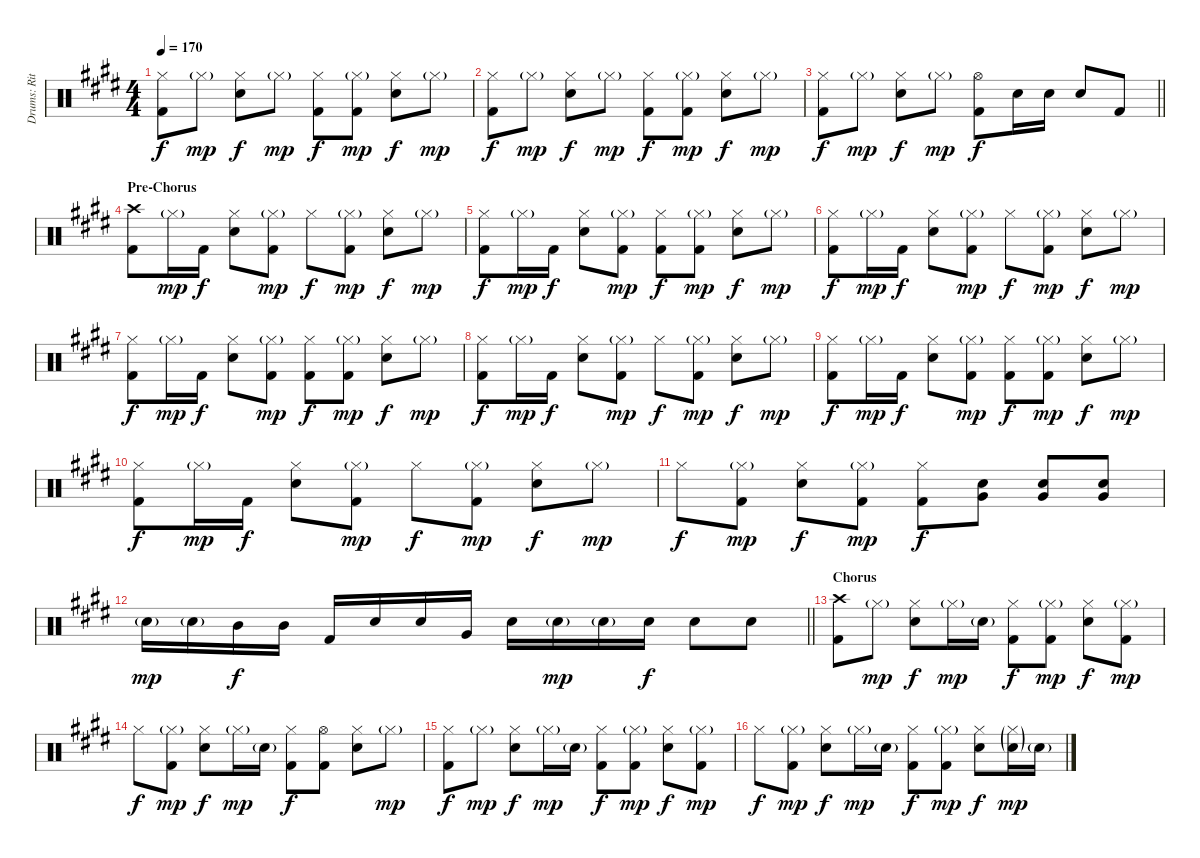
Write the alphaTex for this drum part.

\track ("Drums: Ritsu Tainaka" "Drums: Rit") {instrument percussion}
\staff {score}
\articulation defaults
\ts (4 4)
\tempo 170
\clef neutral
\ks e
("Hi-Hat (closed)" "Kick (hit) 2").8{dy f} "Hi-Hat (closed)"{g}.8{dy mp} ("Hi-Hat (closed)" "Electric Snare (hit)").8{dy f} "Hi-Hat (closed)"{g}.8{dy mp} ("Hi-Hat (closed)" "Kick (hit) 2").8{dy f} ("Hi-Hat (closed)"{g} "Kick (hit) 2").8{dy mp} ("Hi-Hat (closed)" "Electric Snare (hit)").8{dy f} "Hi-Hat (closed)"{g}.8{dy mp} |
("Hi-Hat (closed)" "Kick (hit) 2").8{dy f} "Hi-Hat (closed)"{g}.8{dy mp} ("Hi-Hat (closed)" "Electric Snare (hit)").8{dy f} "Hi-Hat (closed)"{g}.8{dy mp} ("Hi-Hat (closed)" "Kick (hit) 2").8{dy f} ("Hi-Hat (closed)"{g} "Kick (hit) 2").8{dy mp} ("Hi-Hat (closed)" "Electric Snare (hit)").8{dy f} "Hi-Hat (closed)"{g}.8{dy mp} |
\barLineRight lightlight
("Hi-Hat (closed)" "Kick (hit) 2").8{dy f} "Hi-Hat (closed)"{g}.8{dy mp} ("Hi-Hat (closed)" "Electric Snare (hit)").8{dy f} "Hi-Hat (closed)"{g}.8{dy mp} ("Hi-Hat (open)" "Kick (hit) 2").8{dy f} "Electric Snare (hit)".16 "Electric Snare (hit)".16 "Electric Snare (hit)".8 "Kick (hit) 2".8 |
\section ("" "Pre-Chorus")
("Crash high (hit)" "Kick (hit) 2").8 "Hi-Hat (closed)"{g}.16{dy mp} "Kick (hit) 2".16{dy f} ("Hi-Hat (closed)" "Electric Snare (hit)").8 ("Hi-Hat (closed)"{g} "Kick (hit) 2").8{dy mp} "Hi-Hat (closed)".8{dy f} ("Hi-Hat (closed)"{g} "Kick (hit) 2").8{dy mp} ("Hi-Hat (closed)" "Electric Snare (hit)").8{dy f} "Hi-Hat (closed)"{g}.8{dy mp} |
("Hi-Hat (closed)" "Kick (hit) 2").8{dy f} "Hi-Hat (closed)"{g}.16{dy mp} "Kick (hit) 2".16{dy f} ("Hi-Hat (closed)" "Electric Snare (hit)").8 ("Hi-Hat (closed)"{g} "Kick (hit) 2").8{dy mp} ("Hi-Hat (closed)" "Kick (hit) 2").8{dy f} ("Hi-Hat (closed)"{g} "Kick (hit) 2").8{dy mp} ("Hi-Hat (closed)" "Electric Snare (hit)").8{dy f} "Hi-Hat (closed)"{g}.8{dy mp} |
("Hi-Hat (closed)" "Kick (hit) 2").8{dy f} "Hi-Hat (closed)"{g}.16{dy mp} "Kick (hit) 2".16{dy f} ("Hi-Hat (closed)" "Electric Snare (hit)").8 ("Hi-Hat (closed)"{g} "Kick (hit) 2").8{dy mp} "Hi-Hat (closed)".8{dy f} ("Hi-Hat (closed)"{g} "Kick (hit) 2").8{dy mp} ("Hi-Hat (closed)" "Electric Snare (hit)").8{dy f} "Hi-Hat (closed)"{g}.8{dy mp} |
("Hi-Hat (closed)" "Kick (hit) 2").8{dy f} "Hi-Hat (closed)"{g}.16{dy mp} "Kick (hit) 2".16{dy f} ("Hi-Hat (closed)" "Electric Snare (hit)").8 ("Hi-Hat (closed)"{g} "Kick (hit) 2").8{dy mp} ("Hi-Hat (closed)" "Kick (hit) 2").8{dy f} ("Hi-Hat (closed)"{g} "Kick (hit) 2").8{dy mp} ("Hi-Hat (closed)" "Electric Snare (hit)").8{dy f} "Hi-Hat (closed)"{g}.8{dy mp} |
("Hi-Hat (closed)" "Kick (hit) 2").8{dy f} "Hi-Hat (closed)"{g}.16{dy mp} "Kick (hit) 2".16{dy f} ("Hi-Hat (closed)" "Electric Snare (hit)").8 ("Hi-Hat (closed)"{g} "Kick (hit) 2").8{dy mp} "Hi-Hat (closed)".8{dy f} ("Hi-Hat (closed)"{g} "Kick (hit) 2").8{dy mp} ("Hi-Hat (closed)" "Electric Snare (hit)").8{dy f} "Hi-Hat (closed)"{g}.8{dy mp} |
("Hi-Hat (closed)" "Kick (hit) 2").8{dy f} "Hi-Hat (closed)"{g}.16{dy mp} "Kick (hit) 2".16{dy f} ("Hi-Hat (closed)" "Electric Snare (hit)").8 ("Hi-Hat (closed)"{g} "Kick (hit) 2").8{dy mp} ("Hi-Hat (closed)" "Kick (hit) 2").8{dy f} ("Hi-Hat (closed)"{g} "Kick (hit) 2").8{dy mp} ("Hi-Hat (closed)" "Electric Snare (hit)").8{dy f} "Hi-Hat (closed)"{g}.8{dy mp} |
("Hi-Hat (closed)" "Kick (hit) 2").8{dy f} "Hi-Hat (closed)"{g}.16{dy mp} "Kick (hit) 2".16{dy f} ("Hi-Hat (closed)" "Electric Snare (hit)").8 ("Hi-Hat (closed)"{g} "Kick (hit) 2").8{dy mp} "Hi-Hat (closed)".8{dy f} ("Hi-Hat (closed)"{g} "Kick (hit) 2").8{dy mp} ("Hi-Hat (closed)" "Electric Snare (hit)").8{dy f} "Hi-Hat (closed)"{g}.8{dy mp} |
"Hi-Hat (closed)".8{dy f} ("Hi-Hat (closed)"{g} "Kick (hit) 2").8{dy mp} ("Hi-Hat (closed)" "Electric Snare (hit)").8{dy f} ("Hi-Hat (closed)"{g} "Kick (hit) 2").8{dy mp} ("Hi-Hat (closed)" "Kick (hit) 2").8{dy f} ("Electric Snare (hit)" "Very Low Tom (hit)").8 ("Electric Snare (hit)" "Very Low Tom (hit)").8 ("Electric Snare (hit)" "Very Low Tom (hit)").8 |
\barLineRight lightlight "Electric Snare (hit)"{g}.16{dy mp} "Electric Snare (hit)"{g}.16 "Mid Tom (hit)".16{dy f} "Mid Tom (hit)".16 "Kick (hit) 2".16 "Electric Snare (hit)".16 "Electric Snare (hit)".16 "Very Low Tom (hit)".16 "Electric Snare (hit)".16 "Electric Snare (hit)"{g}.16{dy mp} "Electric Snare (hit)"{g}.16 "Electric Snare (hit)".16{dy f} "Electric Snare (hit)".8 "Electric Snare (hit)".8
|
\section ("" "Chorus")
("Crash high (hit)" "Kick (hit) 2").8 "Hi-Hat (closed)"{g}.8{dy mp} ("Hi-Hat (closed)" "Electric Snare (hit)").8{dy f} "Hi-Hat (closed)"{g}.16{dy mp} "Electric Snare (hit)"{g}.16 ("Hi-Hat (closed)" "Kick (hit) 2").8{dy f} ("Hi-Hat (closed)"{g} "Kick (hit) 2").8{dy mp} ("Hi-Hat (closed)" "Electric Snare (hit)").8{dy f} ("Hi-Hat (closed)"{g} "Kick (hit) 2").8{dy mp} |
"Hi-Hat (closed)".8{dy f} ("Hi-Hat (closed)"{g} "Kick (hit) 2").8{dy mp} ("Hi-Hat (closed)" "Electric Snare (hit)").8{dy f} "Hi-Hat (closed)"{g}.16{dy mp} "Electric Snare (hit)"{g}.16 ("Hi-Hat (closed)" "Kick (hit) 2").8{dy f} ("Hi-Hat (open)" "Kick (hit) 2").8 ("Hi-Hat (closed)" "Electric Snare (hit)").8 "Hi-Hat (closed)"{g}.8{dy mp} |
("Hi-Hat (closed)" "Kick (hit) 2").8{dy f} "Hi-Hat (closed)"{g}.8{dy mp} ("Hi-Hat (closed)" "Electric Snare (hit)").8{dy f} "Hi-Hat (closed)"{g}.16{dy mp} "Electric Snare (hit)"{g}.16 ("Hi-Hat (closed)" "Kick (hit) 2").8{dy f} ("Hi-Hat (closed)"{g} "Kick (hit) 2").8{dy mp} ("Hi-Hat (closed)" "Electric Snare (hit)").8{dy f} ("Hi-Hat (closed)"{g} "Kick (hit) 2").8{dy mp} |
"Hi-Hat (closed)".8{dy f} ("Hi-Hat (closed)"{g} "Kick (hit) 2").8{dy mp} ("Hi-Hat (closed)" "Electric Snare (hit)").8{dy f} "Hi-Hat (closed)"{g}.16{dy mp} "Electric Snare (hit)"{g}.16 ("Hi-Hat (closed)" "Kick (hit) 2").8{dy f} ("Hi-Hat (closed)"{g} "Kick (hit) 2").8{dy mp} ("Hi-Hat (closed)" "Electric Snare (hit)").8{dy f} ("Hi-Hat (closed)"{g} "Electric Snare (hit)"{g}).16{dy mp} "Electric Snare (hit)"{g}.16
